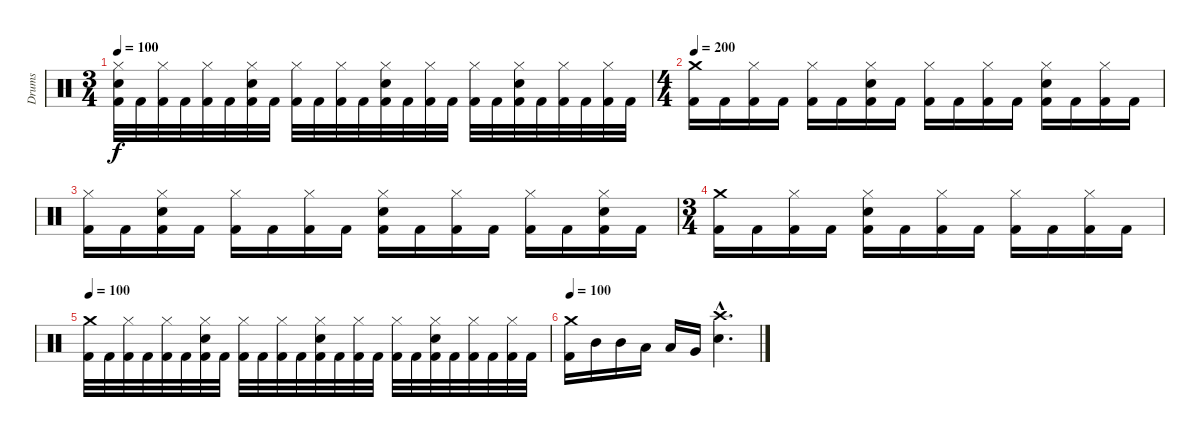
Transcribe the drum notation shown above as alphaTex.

\track ("Drums" "Drums") {instrument percussion}
\staff {score}
\articulation defaults
\ts (3 4)
\tempo 100
\clef neutral
\ks c
("Hi-Hat (closed)" "Electric Snare (hit)" "Kick (hit) 2").32{dy f} "Kick (hit) 2".32 ("Hi-Hat (closed)" "Kick (hit) 2").32 "Kick (hit) 2".32 ("Hi-Hat (closed)" "Kick (hit) 2").32 "Kick (hit) 2".32 ("Hi-Hat (closed)" "Electric Snare (hit)" "Kick (hit) 2").32 "Kick (hit) 2".32 ("Hi-Hat (closed)" "Kick (hit) 2").32 "Kick (hit) 2".32 ("Hi-Hat (closed)" "Kick (hit) 2").32 "Kick (hit) 2".32 ("Hi-Hat (closed)" "Electric Snare (hit)" "Kick (hit) 2").32 "Kick (hit) 2".32 ("Hi-Hat (closed)" "Kick (hit) 2").32 "Kick (hit) 2".32 ("Hi-Hat (closed)" "Kick (hit) 2").32 "Kick (hit) 2".32 ("Hi-Hat (closed)" "Electric Snare (hit)" "Kick (hit) 2").32 "Kick (hit) 2".32 ("Hi-Hat (closed)" "Kick (hit) 2").32 "Kick (hit) 2".32 ("Hi-Hat (closed)" "Kick (hit) 2").32 "Kick (hit) 2".32 |
\ts (4 4)
\tempo 200
("Crash medium (hit)" "Kick (hit) 2").16 "Kick (hit) 2".16 ("Hi-Hat (closed)" "Kick (hit) 2").16 "Kick (hit) 2".16 ("Hi-Hat (closed)" "Kick (hit) 2").16 "Kick (hit) 2".16 ("Hi-Hat (closed)" "Electric Snare (hit)" "Kick (hit) 2").16 "Kick (hit) 2".16 ("Hi-Hat (closed)" "Kick (hit) 2").16 "Kick (hit) 2".16 ("Hi-Hat (closed)" "Kick (hit) 2").16 "Kick (hit) 2".16 ("Hi-Hat (closed)" "Electric Snare (hit)" "Kick (hit) 2").16 "Kick (hit) 2".16 ("Hi-Hat (closed)" "Kick (hit) 2").16 "Kick (hit) 2".16 |
("Hi-Hat (closed)" "Kick (hit) 2").16 "Kick (hit) 2".16 ("Hi-Hat (closed)" "Electric Snare (hit)" "Kick (hit) 2").16 "Kick (hit) 2".16 ("Hi-Hat (closed)" "Kick (hit) 2").16 "Kick (hit) 2".16 ("Hi-Hat (closed)" "Kick (hit) 2").16 "Kick (hit) 2".16 ("Hi-Hat (closed)" "Electric Snare (hit)" "Kick (hit) 2").16 "Kick (hit) 2".16 ("Hi-Hat (closed)" "Kick (hit) 2").16 "Kick (hit) 2".16 ("Hi-Hat (closed)" "Kick (hit) 2").16 "Kick (hit) 2".16 ("Hi-Hat (closed)" "Electric Snare (hit)" "Kick (hit) 2").16 "Kick (hit) 2".16 |
\ts (3 4)
("Crash medium (hit)" "Kick (hit) 2").16 "Kick (hit) 2".16 ("Hi-Hat (closed)" "Kick (hit) 2").16 "Kick (hit) 2".16 ("Hi-Hat (closed)" "Electric Snare (hit)" "Kick (hit) 2").16 "Kick (hit) 2".16 ("Hi-Hat (closed)" "Kick (hit) 2").16 "Kick (hit) 2".16 ("Hi-Hat (closed)" "Kick (hit) 2").16 "Kick (hit) 2".16 ("Hi-Hat (closed)" "Kick (hit) 2").16 "Kick (hit) 2".16 |
\tempo 100
("Crash medium (hit)" "Kick (hit) 2").32 "Kick (hit) 2".32 ("Hi-Hat (closed)" "Kick (hit) 2").32 "Kick (hit) 2".32 ("Hi-Hat (closed)" "Kick (hit) 2").32 "Kick (hit) 2".32 ("Hi-Hat (closed)" "Electric Snare (hit)" "Kick (hit) 2").32 "Kick (hit) 2".32 ("Hi-Hat (closed)" "Kick (hit) 2").32 "Kick (hit) 2".32 ("Hi-Hat (closed)" "Kick (hit) 2").32 "Kick (hit) 2".32 ("Hi-Hat (closed)" "Electric Snare (hit)" "Kick (hit) 2").32 "Kick (hit) 2".32 ("Hi-Hat (closed)" "Kick (hit) 2").32 "Kick (hit) 2".32 ("Hi-Hat (closed)" "Kick (hit) 2").32 "Kick (hit) 2".32 ("Hi-Hat (closed)" "Electric Snare (hit)" "Kick (hit) 2").32 "Kick (hit) 2".32 ("Hi-Hat (closed)" "Kick (hit) 2").32 "Kick (hit) 2".32 ("Hi-Hat (closed)" "Kick (hit) 2").32 "Kick (hit) 2".32 |
\tempo 100
("Crash medium (hit)" "Kick (hit) 2").16 "Mid Tom (hit)".16 "Mid Tom (hit)".16 "Low Tom (hit)".16 "Low Tom (hit)".16 "Very Low Tom (hit)".16 ("Crash high (hit)"{hac} "Electric Snare (hit)"{hac}).4{d}
